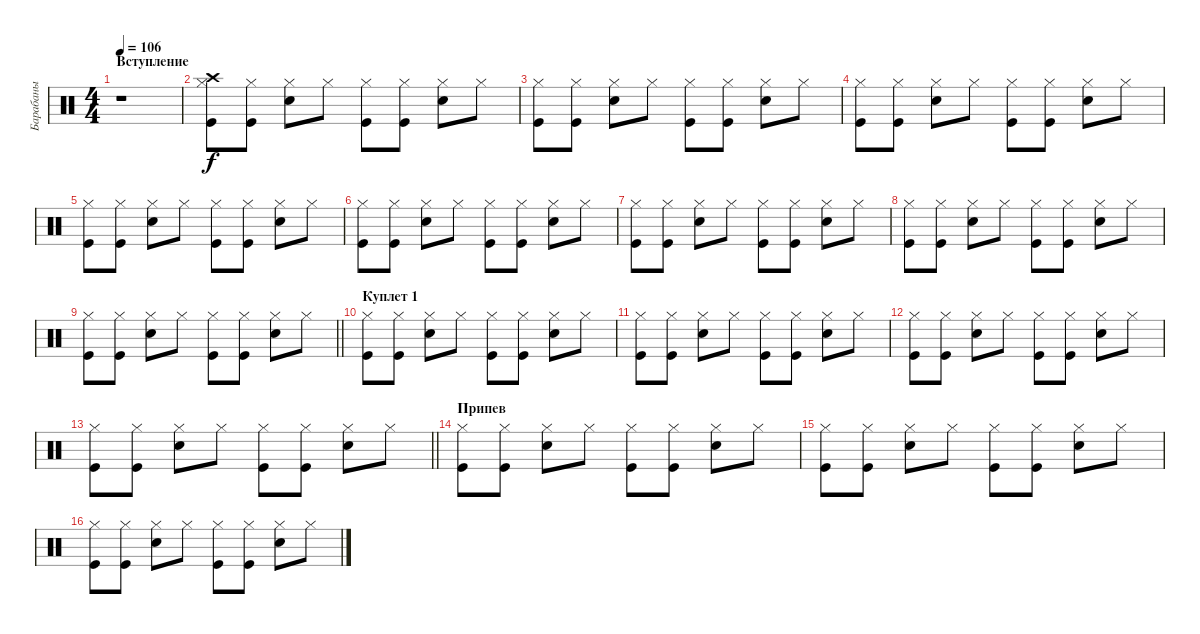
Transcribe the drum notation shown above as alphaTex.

\track ("Барабаны" "Барабаны") {instrument percussion}
\staff {score}
\articulation defaults
\ts (4 4)
\section ("" "Вступление")
\tempo 106
\clef neutral
\ks c
r.1{dy f} |
("Kick (hit)" "Hi-Hat (closed)" "Crash high (hit)").8 ("Kick (hit)" "Hi-Hat (closed)").8 ("Snare (hit) 2" "Hi-Hat (closed)").8 "Hi-Hat (closed)".8 ("Kick (hit)" "Hi-Hat (closed)").8 ("Kick (hit)" "Hi-Hat (closed)").8 ("Snare (hit) 2" "Hi-Hat (closed)").8 "Hi-Hat (closed)".8 |
("Kick (hit)" "Hi-Hat (closed)").8 ("Kick (hit)" "Hi-Hat (closed)").8 ("Snare (hit) 2" "Hi-Hat (closed)").8 "Hi-Hat (closed)".8 ("Kick (hit)" "Hi-Hat (closed)").8 ("Kick (hit)" "Hi-Hat (closed)").8 ("Snare (hit) 2" "Hi-Hat (closed)").8 "Hi-Hat (closed)".8 |
("Kick (hit)" "Hi-Hat (closed)").8 ("Kick (hit)" "Hi-Hat (closed)").8 ("Snare (hit) 2" "Hi-Hat (closed)").8 "Hi-Hat (closed)".8 ("Kick (hit)" "Hi-Hat (closed)").8 ("Kick (hit)" "Hi-Hat (closed)").8 ("Snare (hit) 2" "Hi-Hat (closed)").8 "Hi-Hat (closed)".8 |
("Kick (hit)" "Hi-Hat (closed)").8 ("Kick (hit)" "Hi-Hat (closed)").8 ("Snare (hit) 2" "Hi-Hat (closed)").8 "Hi-Hat (closed)".8 ("Kick (hit)" "Hi-Hat (closed)").8 ("Kick (hit)" "Hi-Hat (closed)").8 ("Snare (hit) 2" "Hi-Hat (closed)").8 "Hi-Hat (closed)".8 |
("Kick (hit)" "Hi-Hat (closed)").8 ("Kick (hit)" "Hi-Hat (closed)").8 ("Snare (hit) 2" "Hi-Hat (closed)").8 "Hi-Hat (closed)".8 ("Kick (hit)" "Hi-Hat (closed)").8 ("Kick (hit)" "Hi-Hat (closed)").8 ("Snare (hit) 2" "Hi-Hat (closed)").8 "Hi-Hat (closed)".8 |
("Kick (hit)" "Hi-Hat (closed)").8 ("Kick (hit)" "Hi-Hat (closed)").8 ("Snare (hit) 2" "Hi-Hat (closed)").8 "Hi-Hat (closed)".8 ("Kick (hit)" "Hi-Hat (closed)").8 ("Kick (hit)" "Hi-Hat (closed)").8 ("Snare (hit) 2" "Hi-Hat (closed)").8 "Hi-Hat (closed)".8 |
("Kick (hit)" "Hi-Hat (closed)").8 ("Kick (hit)" "Hi-Hat (closed)").8 ("Snare (hit) 2" "Hi-Hat (closed)").8 "Hi-Hat (closed)".8 ("Kick (hit)" "Hi-Hat (closed)").8 ("Kick (hit)" "Hi-Hat (closed)").8 ("Snare (hit) 2" "Hi-Hat (closed)").8 "Hi-Hat (closed)".8 |
\barLineRight lightlight
("Kick (hit)" "Hi-Hat (closed)").8 ("Kick (hit)" "Hi-Hat (closed)").8 ("Snare (hit) 2" "Hi-Hat (closed)").8 "Hi-Hat (closed)".8 ("Kick (hit)" "Hi-Hat (closed)").8 ("Kick (hit)" "Hi-Hat (closed)").8 ("Snare (hit) 2" "Hi-Hat (closed)").8 "Hi-Hat (closed)".8 |
\section ("" "Куплет 1")
("Kick (hit)" "Hi-Hat (closed)").8 ("Kick (hit)" "Hi-Hat (closed)").8 ("Snare (hit) 2" "Hi-Hat (closed)").8 "Hi-Hat (closed)".8 ("Kick (hit)" "Hi-Hat (closed)").8 ("Kick (hit)" "Hi-Hat (closed)").8 ("Snare (hit) 2" "Hi-Hat (closed)").8 "Hi-Hat (closed)".8 |
("Kick (hit)" "Hi-Hat (closed)").8 ("Kick (hit)" "Hi-Hat (closed)").8 ("Snare (hit) 2" "Hi-Hat (closed)").8 "Hi-Hat (closed)".8 ("Kick (hit)" "Hi-Hat (closed)").8 ("Kick (hit)" "Hi-Hat (closed)").8 ("Snare (hit) 2" "Hi-Hat (closed)").8 "Hi-Hat (closed)".8 |
("Kick (hit)" "Hi-Hat (closed)").8 ("Kick (hit)" "Hi-Hat (closed)").8 ("Snare (hit) 2" "Hi-Hat (closed)").8 "Hi-Hat (closed)".8 ("Kick (hit)" "Hi-Hat (closed)").8 ("Kick (hit)" "Hi-Hat (closed)").8 ("Snare (hit) 2" "Hi-Hat (closed)").8 "Hi-Hat (closed)".8 |
\barLineRight lightlight
("Kick (hit)" "Hi-Hat (closed)").8 ("Kick (hit)" "Hi-Hat (closed)").8 ("Snare (hit) 2" "Hi-Hat (closed)").8 "Hi-Hat (closed)".8 ("Kick (hit)" "Hi-Hat (closed)").8 ("Kick (hit)" "Hi-Hat (closed)").8 ("Snare (hit) 2" "Hi-Hat (closed)").8 "Hi-Hat (closed)".8 |
\section ("" "Припев")
("Kick (hit)" "Hi-Hat (closed)").8 ("Kick (hit)" "Hi-Hat (closed)").8 ("Snare (hit) 2" "Hi-Hat (closed)").8 "Hi-Hat (closed)".8 ("Kick (hit)" "Hi-Hat (closed)").8 ("Kick (hit)" "Hi-Hat (closed)").8 ("Snare (hit) 2" "Hi-Hat (closed)").8 "Hi-Hat (closed)".8 |
("Kick (hit)" "Hi-Hat (closed)").8 ("Kick (hit)" "Hi-Hat (closed)").8 ("Snare (hit) 2" "Hi-Hat (closed)").8 "Hi-Hat (closed)".8 ("Kick (hit)" "Hi-Hat (closed)").8 ("Kick (hit)" "Hi-Hat (closed)").8 ("Snare (hit) 2" "Hi-Hat (closed)").8 "Hi-Hat (closed)".8 |
("Kick (hit)" "Hi-Hat (closed)").8 ("Kick (hit)" "Hi-Hat (closed)").8 ("Snare (hit) 2" "Hi-Hat (closed)").8 "Hi-Hat (closed)".8 ("Kick (hit)" "Hi-Hat (closed)").8 ("Kick (hit)" "Hi-Hat (closed)").8 ("Snare (hit) 2" "Hi-Hat (closed)").8 "Hi-Hat (closed)".8
